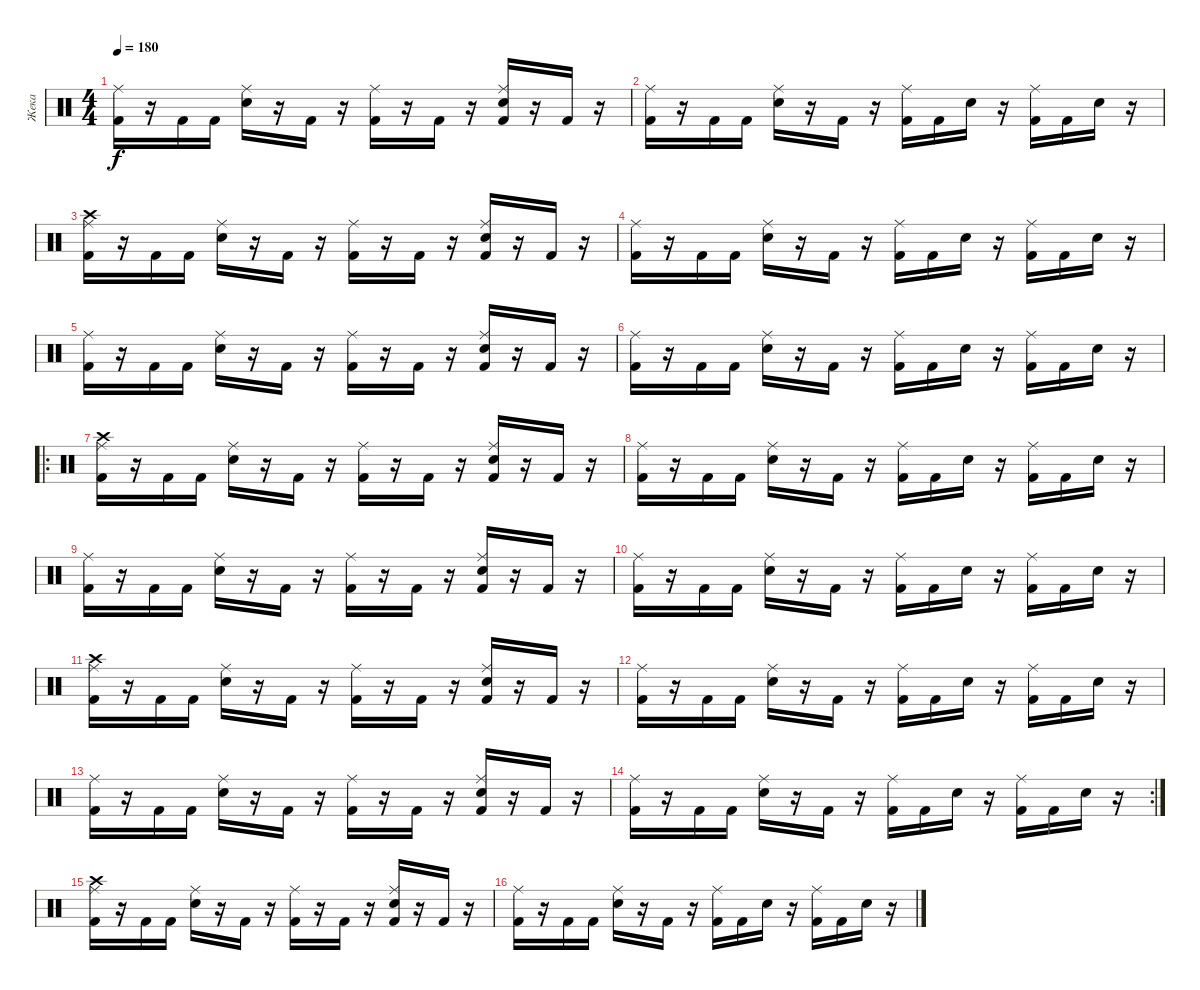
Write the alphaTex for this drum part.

\track ("Жека" "Жека") {instrument percussion}
\staff {score}
\articulation defaults
\ts (4 4)
\tempo 180
\clef neutral
\ks c
("Kick (hit) 2" "Ride (middle)").16{dy f} r.16 "Kick (hit) 2".16 "Kick (hit) 2".16 ("Ride (middle)" "Snare (hit) 2").16 r.16 "Kick (hit) 2".16 r.16 ("Kick (hit) 2" "Ride (middle)").16 r.16 "Kick (hit) 2".16 r.16 ("Kick (hit) 2" "Ride (middle)" "Snare (hit) 2").16 r.16 "Kick (hit) 2".16 r.16 |
("Kick (hit) 2" "Ride (middle)").16 r.16 "Kick (hit) 2".16 "Kick (hit) 2".16 ("Ride (middle)" "Snare (hit) 2").16 r.16 "Kick (hit) 2".16 r.16 ("Kick (hit) 2" "Ride (middle)").16 "Kick (hit) 2".16 "Snare (hit) 2".16 r.16 ("Kick (hit) 2" "Ride (middle)").16 "Kick (hit) 2".16 "Snare (hit) 2".16 r.16 |
("Kick (hit) 2" "Ride (middle)" "Crash high (hit)").16 r.16 "Kick (hit) 2".16 "Kick (hit) 2".16 ("Ride (middle)" "Snare (hit) 2").16 r.16 "Kick (hit) 2".16 r.16 ("Kick (hit) 2" "Ride (middle)").16 r.16 "Kick (hit) 2".16 r.16 ("Kick (hit) 2" "Ride (middle)" "Snare (hit) 2").16 r.16 "Kick (hit) 2".16 r.16 |
("Kick (hit) 2" "Ride (middle)").16 r.16 "Kick (hit) 2".16 "Kick (hit) 2".16 ("Ride (middle)" "Snare (hit) 2").16 r.16 "Kick (hit) 2".16 r.16 ("Kick (hit) 2" "Ride (middle)").16 "Kick (hit) 2".16 "Snare (hit) 2".16 r.16 ("Kick (hit) 2" "Ride (middle)").16 "Kick (hit) 2".16 "Snare (hit) 2".16 r.16 |
("Kick (hit) 2" "Ride (middle)").16 r.16 "Kick (hit) 2".16 "Kick (hit) 2".16 ("Ride (middle)" "Snare (hit) 2").16 r.16 "Kick (hit) 2".16 r.16 ("Kick (hit) 2" "Ride (middle)").16 r.16 "Kick (hit) 2".16 r.16 ("Kick (hit) 2" "Ride (middle)" "Snare (hit) 2").16 r.16 "Kick (hit) 2".16 r.16 |
("Kick (hit) 2" "Ride (middle)").16 r.16 "Kick (hit) 2".16 "Kick (hit) 2".16 ("Ride (middle)" "Snare (hit) 2").16 r.16 "Kick (hit) 2".16 r.16 ("Kick (hit) 2" "Ride (middle)").16 "Kick (hit) 2".16 "Snare (hit) 2".16 r.16 ("Kick (hit) 2" "Ride (middle)").16 "Kick (hit) 2".16 "Snare (hit) 2".16 r.16 |
\ro
("Kick (hit) 2" "Ride (middle)" "Crash high (hit)").16 r.16 "Kick (hit) 2".16 "Kick (hit) 2".16 ("Ride (middle)" "Snare (hit) 2").16 r.16 "Kick (hit) 2".16 r.16 ("Kick (hit) 2" "Ride (middle)").16 r.16 "Kick (hit) 2".16 r.16 ("Kick (hit) 2" "Ride (middle)" "Snare (hit) 2").16 r.16 "Kick (hit) 2".16 r.16 |
("Kick (hit) 2" "Ride (middle)").16 r.16 "Kick (hit) 2".16 "Kick (hit) 2".16 ("Ride (middle)" "Snare (hit) 2").16 r.16 "Kick (hit) 2".16 r.16 ("Kick (hit) 2" "Ride (middle)").16 "Kick (hit) 2".16 "Snare (hit) 2".16 r.16 ("Kick (hit) 2" "Ride (middle)").16 "Kick (hit) 2".16 "Snare (hit) 2".16 r.16 |
("Kick (hit) 2" "Ride (middle)").16 r.16 "Kick (hit) 2".16 "Kick (hit) 2".16 ("Ride (middle)" "Snare (hit) 2").16 r.16 "Kick (hit) 2".16 r.16 ("Kick (hit) 2" "Ride (middle)").16 r.16 "Kick (hit) 2".16 r.16 ("Kick (hit) 2" "Ride (middle)" "Snare (hit) 2").16 r.16 "Kick (hit) 2".16 r.16 |
("Kick (hit) 2" "Ride (middle)").16 r.16 "Kick (hit) 2".16 "Kick (hit) 2".16 ("Ride (middle)" "Snare (hit) 2").16 r.16 "Kick (hit) 2".16 r.16 ("Kick (hit) 2" "Ride (middle)").16 "Kick (hit) 2".16 "Snare (hit) 2".16 r.16 ("Kick (hit) 2" "Ride (middle)").16 "Kick (hit) 2".16 "Snare (hit) 2".16 r.16 |
("Kick (hit) 2" "Ride (middle)" "Crash high (hit)").16 r.16 "Kick (hit) 2".16 "Kick (hit) 2".16 ("Ride (middle)" "Snare (hit) 2").16 r.16 "Kick (hit) 2".16 r.16 ("Kick (hit) 2" "Ride (middle)").16 r.16 "Kick (hit) 2".16 r.16 ("Kick (hit) 2" "Ride (middle)" "Snare (hit) 2").16 r.16 "Kick (hit) 2".16 r.16 |
("Kick (hit) 2" "Ride (middle)").16 r.16 "Kick (hit) 2".16 "Kick (hit) 2".16 ("Ride (middle)" "Snare (hit) 2").16 r.16 "Kick (hit) 2".16 r.16 ("Kick (hit) 2" "Ride (middle)").16 "Kick (hit) 2".16 "Snare (hit) 2".16 r.16 ("Kick (hit) 2" "Ride (middle)").16 "Kick (hit) 2".16 "Snare (hit) 2".16 r.16 |
("Kick (hit) 2" "Ride (middle)").16 r.16 "Kick (hit) 2".16 "Kick (hit) 2".16 ("Ride (middle)" "Snare (hit) 2").16 r.16 "Kick (hit) 2".16 r.16 ("Kick (hit) 2" "Ride (middle)").16 r.16 "Kick (hit) 2".16 r.16 ("Kick (hit) 2" "Ride (middle)" "Snare (hit) 2").16 r.16 "Kick (hit) 2".16 r.16 |
\rc 2
("Kick (hit) 2" "Ride (middle)").16 r.16 "Kick (hit) 2".16 "Kick (hit) 2".16 ("Ride (middle)" "Snare (hit) 2").16 r.16 "Kick (hit) 2".16 r.16 ("Kick (hit) 2" "Ride (middle)").16 "Kick (hit) 2".16 "Snare (hit) 2".16 r.16 ("Kick (hit) 2" "Ride (middle)").16 "Kick (hit) 2".16 "Snare (hit) 2".16 r.16 |
("Kick (hit) 2" "Ride (middle)" "Crash high (hit)").16 r.16 "Kick (hit) 2".16 "Kick (hit) 2".16 ("Ride (middle)" "Snare (hit) 2").16 r.16 "Kick (hit) 2".16 r.16 ("Kick (hit) 2" "Ride (middle)").16 r.16 "Kick (hit) 2".16 r.16 ("Kick (hit) 2" "Ride (middle)" "Snare (hit) 2").16 r.16 "Kick (hit) 2".16 r.16 |
("Kick (hit) 2" "Ride (middle)").16 r.16 "Kick (hit) 2".16 "Kick (hit) 2".16 ("Ride (middle)" "Snare (hit) 2").16 r.16 "Kick (hit) 2".16 r.16 ("Kick (hit) 2" "Ride (middle)").16 "Kick (hit) 2".16 "Snare (hit) 2".16 r.16 ("Kick (hit) 2" "Ride (middle)").16 "Kick (hit) 2".16 "Snare (hit) 2".16 r.16
